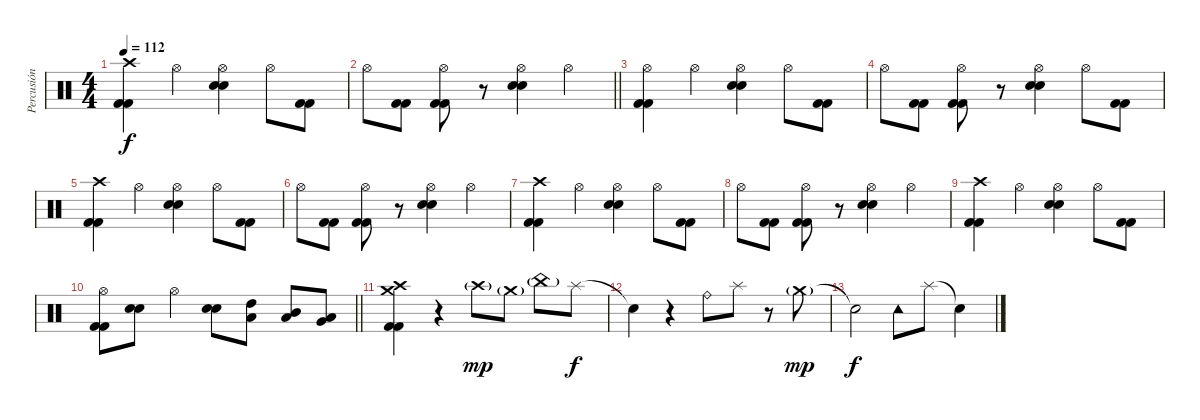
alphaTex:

\track ("Percusión" "Percusión") {instrument percussion}
\staff {score}
\articulation defaults
\ts (4 4)
\tempo 112
\clef neutral
\ks c
("Kick (hit) 2" "Crash high (hit)" "Kick (hit) 2").4{dy f} "Hi-Hat (open)".4 ("Hi-Hat (open)" "Electric Snare (hit)" "Electric Snare (hit)").4 "Hi-Hat (open)".8 ("Kick (hit) 2" "Kick (hit) 2").8 |
\barLineRight lightlight "Hi-Hat (open)".8
("Kick (hit) 2" "Kick (hit) 2").8 ("Kick (hit) 2" "Hi-Hat (open)" "Kick (hit) 2").8 r.8 ("Electric Snare (hit)" "Electric Snare (hit)" "Hi-Hat (open)").4 "Hi-Hat (open)".4 |
("Kick (hit) 2" "Hi-Hat (open)" "Kick (hit) 2").4 "Hi-Hat (open)".4 ("Hi-Hat (open)" "Electric Snare (hit)" "Electric Snare (hit)").4 "Hi-Hat (open)".8 ("Kick (hit) 2" "Kick (hit) 2").8 |
"Hi-Hat (open)".8 ("Kick (hit) 2" "Kick (hit) 2").8 ("Kick (hit) 2" "Hi-Hat (open)" "Kick (hit) 2").8 r.8 ("Electric Snare (hit)" "Electric Snare (hit)" "Hi-Hat (open)").4 "Hi-Hat (open)".8 ("Kick (hit) 2" "Kick (hit) 2").8 |
("Kick (hit) 2" "Crash high (hit)" "Kick (hit) 2").4 "Hi-Hat (open)".4 ("Hi-Hat (open)" "Electric Snare (hit)" "Electric Snare (hit)").4 "Hi-Hat (open)".8 ("Kick (hit) 2" "Kick (hit) 2").8 |
"Hi-Hat (open)".8 ("Kick (hit) 2" "Kick (hit) 2").8 ("Kick (hit) 2" "Hi-Hat (open)" "Kick (hit) 2").8 r.8 ("Electric Snare (hit)" "Electric Snare (hit)" "Hi-Hat (open)").4 "Hi-Hat (open)".4 |
("Kick (hit) 2" "Crash high (hit)" "Kick (hit) 2").4 "Hi-Hat (open)".4 ("Hi-Hat (open)" "Electric Snare (hit)" "Electric Snare (hit)").4 "Hi-Hat (open)".8 ("Kick (hit) 2" "Kick (hit) 2").8 |
"Hi-Hat (open)".8 ("Kick (hit) 2" "Kick (hit) 2").8 ("Kick (hit) 2" "Hi-Hat (open)" "Kick (hit) 2").8 r.8 ("Electric Snare (hit)" "Electric Snare (hit)" "Hi-Hat (open)").4 "Hi-Hat (open)".4 |
("Kick (hit) 2" "Crash high (hit)" "Kick (hit) 2").4 "Hi-Hat (open)".4 ("Hi-Hat (open)" "Electric Snare (hit)" "Electric Snare (hit)").4 "Hi-Hat (open)".8 ("Kick (hit) 2" "Kick (hit) 2").8 |
\barLineRight lightlight
("Kick (hit) 2" "Hi-Hat (open)" "Kick (hit) 2").8 ("Electric Snare (hit)" "Electric Snare (hit)").8 "Hi-Hat (open)".4 ("Electric Snare (hit)" "Electric Snare (hit)").8 ("High Tom (hit)" "Low Tom (hit)").8 ("Mid Tom (hit)" "Low Tom (hit)").8 ("Low Tom (hit)" "Very Low Tom (hit)").8 |
("Kick (hit) 2" "Crash medium (hit)" "Crash high (hit)" "Kick (hit) 2").4 r.4 "Crash high (hit)"{g}.8{dy mp} "Crash medium (hit)"{g}.8 "China (hit)"{g}.8 "Splash (hit)".8{dy f} |
"Snare (hit)"{t}.4 r.4 "Ride (bell)".8 "Splash (hit)".8 r.8 "Crash medium (hit)"{g}.8{dy mp} |
"Snare (hit)"{t}.2{dy f} "Tambourine (hit)".8 "Splash (hit)".8 "Snare (hit)"{t}.4
